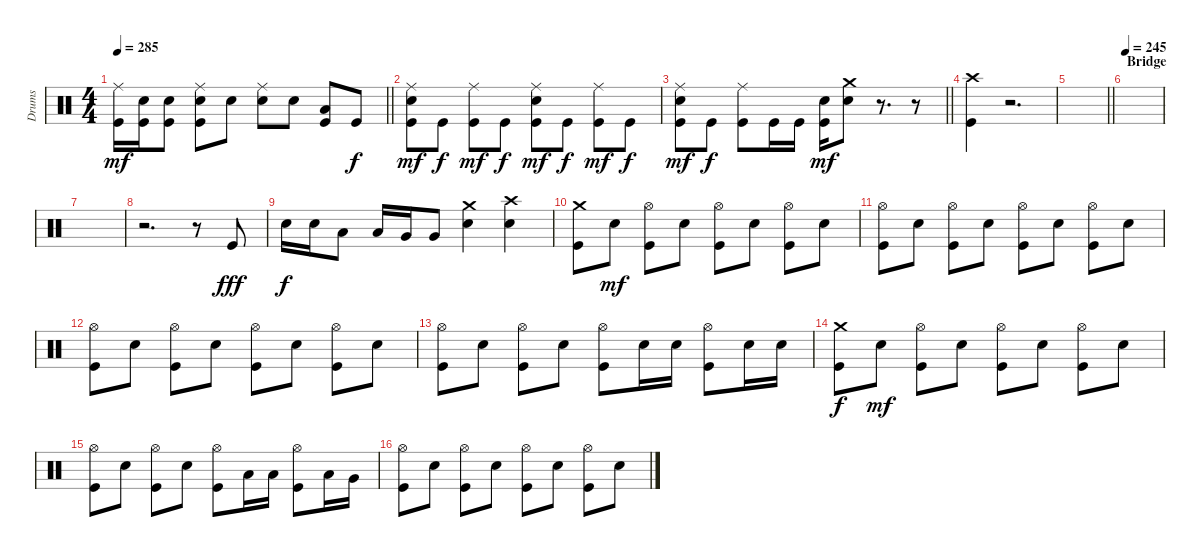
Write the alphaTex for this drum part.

\track ("Drums" "Drums") {instrument percussion}
\staff {score}
\articulation defaults
\ts (4 4)
\tempo 285
\clef neutral
\barLineRight lightlight
\ks c
("Ride (middle)" "Kick (hit)").16{dy mf} ("Snare (hit) 2" "Kick (hit)").16 ("Snare (hit) 2" "Kick (hit)").8 ("Ride (middle)" "Snare (hit) 2" "Kick (hit)").8 "Snare (hit) 2".8 ("Ride (middle)" "Snare (hit) 2").8 "Snare (hit) 2".8 ("Low Tom (hit)" "Kick (hit)").8 "Kick (hit)".8{dy f} |
("Ride (middle)" "Snare (hit) 2" "Kick (hit)").8{dy mf} "Kick (hit)".8{dy f} ("Ride (middle)" "Kick (hit)").8{dy mf} "Kick (hit)".8{dy f} ("Ride (middle)" "Snare (hit) 2" "Kick (hit)").8{dy mf} "Kick (hit)".8{dy f} ("Ride (middle)" "Kick (hit)").8{dy mf} "Kick (hit)".8{dy f} |
\barLineRight lightlight
("Ride (middle)" "Snare (hit) 2" "Kick (hit)").8{dy mf} "Kick (hit)".8{dy f} ("Ride (middle)" "Kick (hit)").8 "Kick (hit)".16 "Kick (hit)".16 ("Snare (hit) 2" "Kick (hit)").16{dy mf} ("Crash medium (hit)" "Snare (hit) 2").8 r.8{d} r.8 |
("Crash high (hit)" "Kick (hit)").4 r.2{d} |
\barLineRight lightlight
|
\section ("" "Bridge")
\tempo 245
|
|
r.2{d} r.8 "Kick (hit)".8{dy fff} |
"Snare (hit) 2".16{dy f} "Snare (hit) 2".16 "Low Tom (hit)".8 "Low Tom (hit)".16 "Very Low Tom (hit)".16 "Very Low Tom (hit)".8 ("Crash medium (hit)" "Snare (hit) 2").4 ("Crash high (hit)" "Snare (hit) 2").4 |
("Crash medium (hit)" "Kick (hit)").8 "Snare (hit) 2".8{dy mf} ("Hi-Hat (open)" "Kick (hit)").8 "Snare (hit) 2".8 ("Hi-Hat (open)" "Kick (hit)").8 "Snare (hit) 2".8 ("Hi-Hat (open)" "Kick (hit)").8 "Snare (hit) 2".8 |
("Hi-Hat (open)" "Kick (hit)").8 "Snare (hit) 2".8 ("Hi-Hat (open)" "Kick (hit)").8 "Snare (hit) 2".8 ("Hi-Hat (open)" "Kick (hit)").8 "Snare (hit) 2".8 ("Hi-Hat (open)" "Kick (hit)").8 "Snare (hit) 2".8 |
("Hi-Hat (open)" "Kick (hit)").8 "Snare (hit) 2".8 ("Hi-Hat (open)" "Kick (hit)").8 "Snare (hit) 2".8 ("Hi-Hat (open)" "Kick (hit)").8 "Snare (hit) 2".8 ("Hi-Hat (open)" "Kick (hit)").8 "Snare (hit) 2".8 |
("Hi-Hat (open)" "Kick (hit)").8 "Snare (hit) 2".8 ("Hi-Hat (open)" "Kick (hit)").8 "Snare (hit) 2".8 ("Hi-Hat (open)" "Kick (hit)").8 "Snare (hit) 2".16 "Snare (hit) 2".16 ("Hi-Hat (open)" "Kick (hit)").8 "Snare (hit) 2".16 "Snare (hit) 2".16 |
("Crash medium (hit)" "Kick (hit)").8{dy f} "Snare (hit) 2".8{dy mf} ("Hi-Hat (open)" "Kick (hit)").8 "Snare (hit) 2".8 ("Hi-Hat (open)" "Kick (hit)").8 "Snare (hit) 2".8 ("Hi-Hat (open)" "Kick (hit)").8 "Snare (hit) 2".8 |
("Hi-Hat (open)" "Kick (hit)").8 "Snare (hit) 2".8 ("Hi-Hat (open)" "Kick (hit)").8 "Snare (hit) 2".8 ("Hi-Hat (open)" "Kick (hit)").8 "Low Tom (hit)".16 "Low Tom (hit)".16 ("Hi-Hat (open)" "Kick (hit)").8 "Low Tom (hit)".16 "Very Low Tom (hit)".16 |
("Hi-Hat (open)" "Kick (hit)").8 "Snare (hit) 2".8 ("Hi-Hat (open)" "Kick (hit)").8 "Snare (hit) 2".8 ("Hi-Hat (open)" "Kick (hit)").8 "Snare (hit) 2".8 ("Hi-Hat (open)" "Kick (hit)").8 "Snare (hit) 2".8
